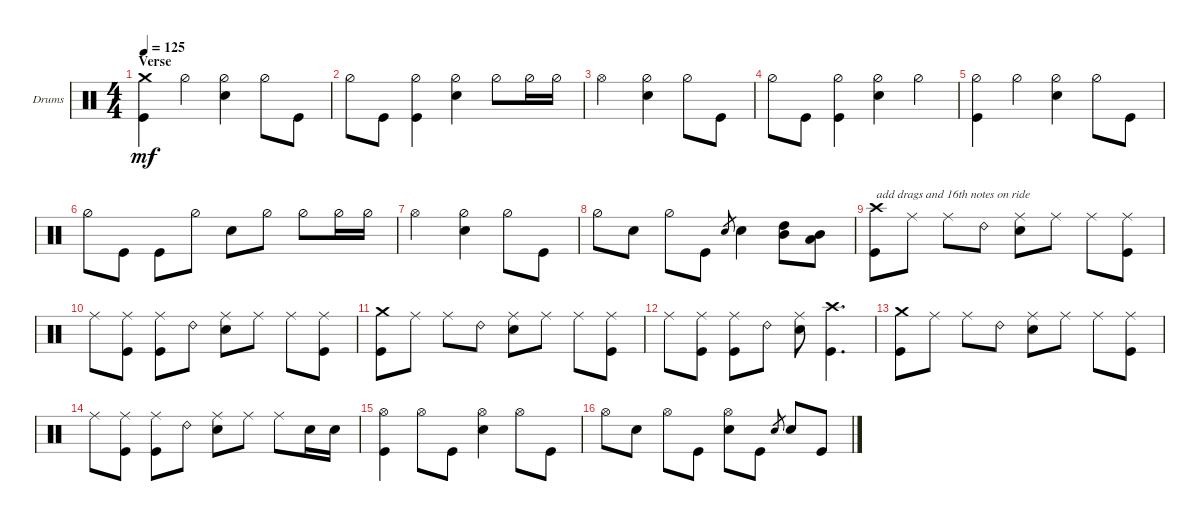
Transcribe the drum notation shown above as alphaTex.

\bracketExtendMode groupsimilarinstruments
\firstSystemTrackNameOrientation horizontal
\otherSystemsTrackNameOrientation horizontal
\track ("Drums (chad ...)" "Drums") {instrument percussion}
\staff {score}
\articulation defaults
\ts (4 4)
\section ("" "Verse")
\tempo 125
\clef neutral
\ks c
("Crash medium (hit)" "Kick (hit)").4{dy mf} "Hi-Hat (half)".4 ("Hi-Hat (half)" "Snare (hit) 2").4 "Hi-Hat (half)".8 "Kick (hit)".8 |
"Hi-Hat (half)".8 "Kick (hit)".8 ("Kick (hit)" "Hi-Hat (half)").4 ("Hi-Hat (half)" "Snare (hit) 2").4 "Hi-Hat (half)".8 "Hi-Hat (half)".16 "Hi-Hat (half)".16 |
"Hi-Hat (open)".2 ("Hi-Hat (half)" "Snare (hit) 2").4 "Hi-Hat (half)".8 "Kick (hit)".8 |
"Hi-Hat (half)".8 "Kick (hit)".8 ("Kick (hit)" "Hi-Hat (half)").4 ("Hi-Hat (half)" "Snare (hit) 2").4 "Hi-Hat (half)".4 |
("Kick (hit)" "Hi-Hat (half)").4 "Hi-Hat (half)".4 ("Hi-Hat (half)" "Snare (hit) 2").4 "Hi-Hat (half)".8 "Kick (hit)".8 |
"Hi-Hat (half)".8 "Kick (hit)".8 "Kick (hit)".8 "Hi-Hat (half)".8 "Snare (hit) 2".8 "Hi-Hat (half)".8 "Hi-Hat (half)".8 "Hi-Hat (half)".16 "Hi-Hat (half)".16 |
"Hi-Hat (open)".2 ("Hi-Hat (half)" "Snare (hit) 2").4 "Hi-Hat (half)".8 "Kick (hit)".8 |
"Hi-Hat (half)".8 "Snare (hit) 2".8 "Hi-Hat (half)".8 "Kick (hit)".8 "Snare (hit) 2".8{gr} "Snare (hit) 2".4 ("High Tom (hit)" "Mid Tom (hit)").8 ("Mid Tom (hit)" "Low Tom (hit)").8 |
("Crash high (hit)" "Kick (hit)").8{txt "add drags and 16th notes on ride"} "Ride (middle)".8 "Ride (middle)".8 "Ride (bell) 2".8 ("Ride (middle)" "Snare (hit) 2").8 "Ride (middle)".8 "Ride (middle)".8 ("Ride (middle)" "Kick (hit)").8 |
"Ride (middle)".8 ("Kick (hit)" "Ride (middle)").8 ("Kick (hit)" "Ride (middle)").8 "Ride (bell) 2".8 ("Ride (middle)" "Snare (hit) 2").8 "Ride (middle)".8 "Ride (middle)".8 ("Ride (middle)" "Kick (hit)").8 |
("Kick (hit)" "Crash medium (hit)").8 "Ride (middle)".8 "Ride (middle)".8 "Ride (bell) 2".8 ("Ride (middle)" "Snare (hit) 2").8 "Ride (middle)".8 "Ride (middle)".8 ("Ride (middle)" "Kick (hit)").8 |
"Ride (middle)".8 ("Kick (hit)" "Ride (middle)").8 ("Kick (hit)" "Ride (middle)").8 "Ride (bell) 2".8 ("Ride (middle)" "Snare (hit) 2").8 ("Crash high (hit)" "Kick (hit)").4{d} |
("Kick (hit)" "Crash medium (hit)").8 "Ride (middle)".8 "Ride (middle)".8 "Ride (bell) 2".8 ("Ride (middle)" "Snare (hit) 2").8 "Ride (middle)".8 "Ride (middle)".8 ("Ride (middle)" "Kick (hit)").8 |
"Ride (middle)".8 ("Kick (hit)" "Ride (middle)").8 ("Kick (hit)" "Ride (middle)").8 "Ride (bell) 2".8 ("Ride (middle)" "Snare (hit) 2").8 "Ride (middle)".8 "Ride (middle)".8 "Snare (hit) 2".16 "Snare (hit) 2".16 |
("Hi-Hat (open)" "Kick (hit)").4 "Hi-Hat (open)".8 "Kick (hit)".8 ("Hi-Hat (open)" "Snare (hit) 2").4 "Hi-Hat (open)".8 "Kick (hit)".8 |
"Hi-Hat (open)".8 "Snare (hit) 2".8 "Hi-Hat (open)".8 "Kick (hit)".8 ("Snare (hit) 2" "Hi-Hat (open)").8 "Kick (hit)".8 "Snare (hit) 2".8{gr} "Snare (hit) 2".8 "Kick (hit)".8
